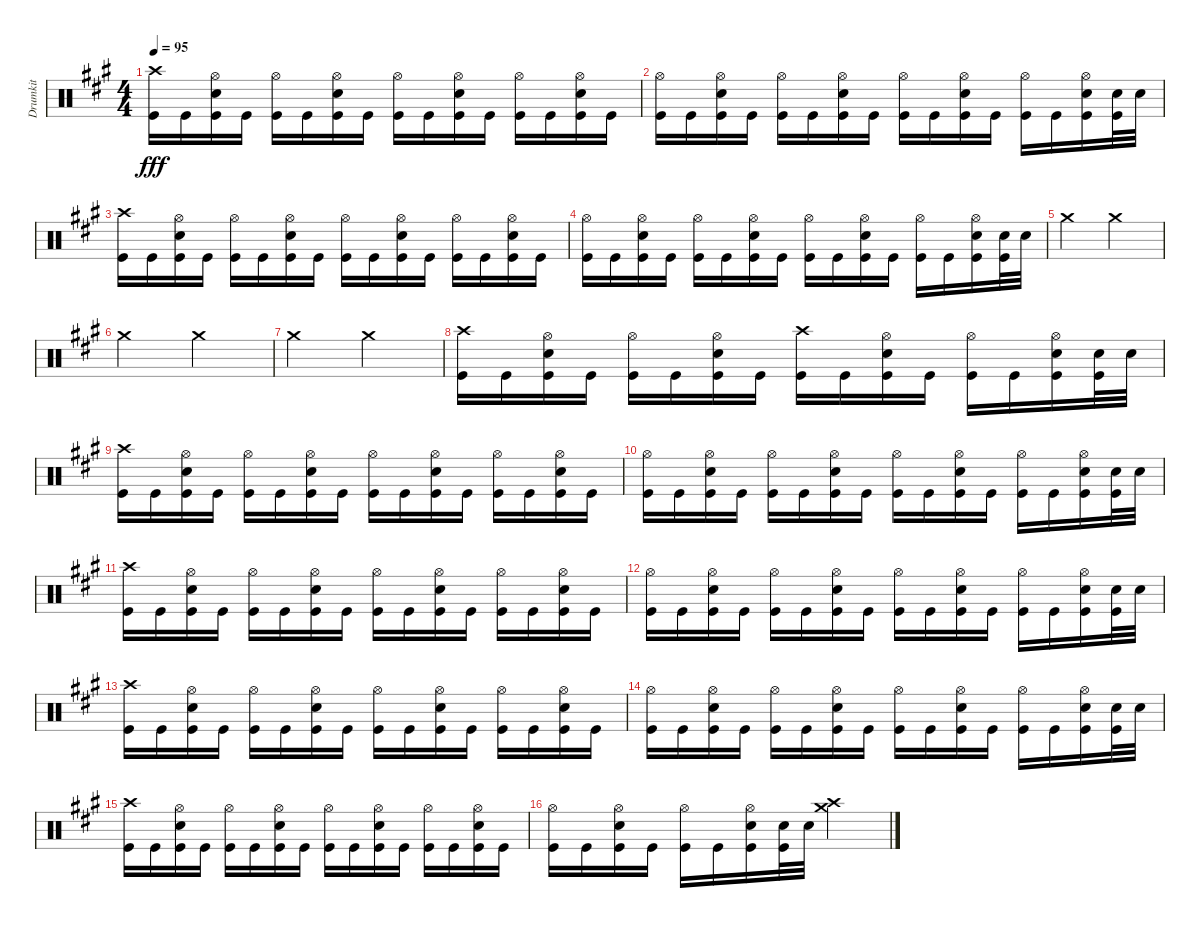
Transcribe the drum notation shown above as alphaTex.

\track ("Drumkit" "Drumkit") {instrument percussion}
\staff {score}
\articulation defaults
\ts (4 4)
\tempo 95
\clef neutral
\ks a
("Crash high (hit)" "Kick (hit)").16{dy fff} "Kick (hit)".16 ("Hi-Hat (open)" "Snare (hit) 2" "Kick (hit)").16 "Kick (hit)".16 ("Hi-Hat (open)" "Kick (hit)").16 "Kick (hit)".16 ("Hi-Hat (open)" "Snare (hit) 2" "Kick (hit)").16 "Kick (hit)".16 ("Hi-Hat (open)" "Kick (hit)").16 "Kick (hit)".16 ("Hi-Hat (open)" "Snare (hit) 2" "Kick (hit)").16 "Kick (hit)".16 ("Hi-Hat (open)" "Kick (hit)").16 "Kick (hit)".16 ("Hi-Hat (open)" "Snare (hit) 2" "Kick (hit)").16 "Kick (hit)".16 |
("Hi-Hat (open)" "Kick (hit)").16 "Kick (hit)".16 ("Hi-Hat (open)" "Snare (hit) 2" "Kick (hit)").16 "Kick (hit)".16 ("Hi-Hat (open)" "Kick (hit)").16 "Kick (hit)".16 ("Hi-Hat (open)" "Snare (hit) 2" "Kick (hit)").16 "Kick (hit)".16 ("Hi-Hat (open)" "Kick (hit)").16 "Kick (hit)".16 ("Hi-Hat (open)" "Snare (hit) 2" "Kick (hit)").16 "Kick (hit)".16 ("Hi-Hat (open)" "Kick (hit)").16 "Kick (hit)".16 ("Hi-Hat (open)" "Snare (hit) 2" "Kick (hit)").16 ("Snare (hit) 2" "Kick (hit)").32 "Snare (hit) 2".32 |
("Crash high (hit)" "Kick (hit)").16 "Kick (hit)".16 ("Hi-Hat (open)" "Snare (hit) 2" "Kick (hit)").16 "Kick (hit)".16 ("Hi-Hat (open)" "Kick (hit)").16 "Kick (hit)".16 ("Hi-Hat (open)" "Snare (hit) 2" "Kick (hit)").16 "Kick (hit)".16 ("Hi-Hat (open)" "Kick (hit)").16 "Kick (hit)".16 ("Hi-Hat (open)" "Snare (hit) 2" "Kick (hit)").16 "Kick (hit)".16 ("Hi-Hat (open)" "Kick (hit)").16 "Kick (hit)".16 ("Hi-Hat (open)" "Snare (hit) 2" "Kick (hit)").16 "Kick (hit)".16 |
("Hi-Hat (open)" "Kick (hit)").16 "Kick (hit)".16 ("Hi-Hat (open)" "Snare (hit) 2" "Kick (hit)").16 "Kick (hit)".16 ("Hi-Hat (open)" "Kick (hit)").16 "Kick (hit)".16 ("Hi-Hat (open)" "Snare (hit) 2" "Kick (hit)").16 "Kick (hit)".16 ("Hi-Hat (open)" "Kick (hit)").16 "Kick (hit)".16 ("Hi-Hat (open)" "Snare (hit) 2" "Kick (hit)").16 "Kick (hit)".16 ("Hi-Hat (open)" "Kick (hit)").16 "Kick (hit)".16 ("Hi-Hat (open)" "Snare (hit) 2" "Kick (hit)").16 ("Snare (hit) 2" "Kick (hit)").32 "Snare (hit) 2".32 |
"Crash medium (hit)".2 "Crash medium (hit)".2 |
"Crash medium (hit)".2 "Crash medium (hit)".2 |
"Crash medium (hit)".2 "Crash medium (hit)".2 |
("Crash high (hit)" "Kick (hit)").16 "Kick (hit)".16 ("Hi-Hat (open)" "Snare (hit) 2" "Kick (hit)").16 "Kick (hit)".16 ("Hi-Hat (open)" "Kick (hit)").16 "Kick (hit)".16 ("Hi-Hat (open)" "Snare (hit) 2" "Kick (hit)").16 "Kick (hit)".16 ("Crash high (hit)" "Kick (hit)").16 "Kick (hit)".16 ("Hi-Hat (open)" "Snare (hit) 2" "Kick (hit)").16 "Kick (hit)".16 ("Hi-Hat (open)" "Kick (hit)").16 "Kick (hit)".16 ("Hi-Hat (open)" "Snare (hit) 2" "Kick (hit)").16 ("Snare (hit) 2" "Kick (hit)").32 "Snare (hit) 2".32 |
("Crash high (hit)" "Kick (hit)").16 "Kick (hit)".16 ("Hi-Hat (open)" "Snare (hit) 2" "Kick (hit)").16 "Kick (hit)".16 ("Hi-Hat (open)" "Kick (hit)").16 "Kick (hit)".16 ("Hi-Hat (open)" "Snare (hit) 2" "Kick (hit)").16 "Kick (hit)".16 ("Hi-Hat (open)" "Kick (hit)").16 "Kick (hit)".16 ("Hi-Hat (open)" "Snare (hit) 2" "Kick (hit)").16 "Kick (hit)".16 ("Hi-Hat (open)" "Kick (hit)").16 "Kick (hit)".16 ("Hi-Hat (open)" "Snare (hit) 2" "Kick (hit)").16 "Kick (hit)".16 |
("Hi-Hat (open)" "Kick (hit)").16 "Kick (hit)".16 ("Hi-Hat (open)" "Snare (hit) 2" "Kick (hit)").16 "Kick (hit)".16 ("Hi-Hat (open)" "Kick (hit)").16 "Kick (hit)".16 ("Hi-Hat (open)" "Snare (hit) 2" "Kick (hit)").16 "Kick (hit)".16 ("Hi-Hat (open)" "Kick (hit)").16 "Kick (hit)".16 ("Hi-Hat (open)" "Snare (hit) 2" "Kick (hit)").16 "Kick (hit)".16 ("Hi-Hat (open)" "Kick (hit)").16 "Kick (hit)".16 ("Hi-Hat (open)" "Snare (hit) 2" "Kick (hit)").16 ("Snare (hit) 2" "Kick (hit)").32 "Snare (hit) 2".32 |
("Crash high (hit)" "Kick (hit)").16 "Kick (hit)".16 ("Hi-Hat (open)" "Snare (hit) 2" "Kick (hit)").16 "Kick (hit)".16 ("Hi-Hat (open)" "Kick (hit)").16 "Kick (hit)".16 ("Hi-Hat (open)" "Snare (hit) 2" "Kick (hit)").16 "Kick (hit)".16 ("Hi-Hat (open)" "Kick (hit)").16 "Kick (hit)".16 ("Hi-Hat (open)" "Snare (hit) 2" "Kick (hit)").16 "Kick (hit)".16 ("Hi-Hat (open)" "Kick (hit)").16 "Kick (hit)".16 ("Hi-Hat (open)" "Snare (hit) 2" "Kick (hit)").16 "Kick (hit)".16 |
("Hi-Hat (open)" "Kick (hit)").16 "Kick (hit)".16 ("Hi-Hat (open)" "Snare (hit) 2" "Kick (hit)").16 "Kick (hit)".16 ("Hi-Hat (open)" "Kick (hit)").16 "Kick (hit)".16 ("Hi-Hat (open)" "Snare (hit) 2" "Kick (hit)").16 "Kick (hit)".16 ("Hi-Hat (open)" "Kick (hit)").16 "Kick (hit)".16 ("Hi-Hat (open)" "Snare (hit) 2" "Kick (hit)").16 "Kick (hit)".16 ("Hi-Hat (open)" "Kick (hit)").16 "Kick (hit)".16 ("Hi-Hat (open)" "Snare (hit) 2" "Kick (hit)").16 ("Snare (hit) 2" "Kick (hit)").32 "Snare (hit) 2".32 |
("Crash high (hit)" "Kick (hit)").16 "Kick (hit)".16 ("Hi-Hat (open)" "Snare (hit) 2" "Kick (hit)").16 "Kick (hit)".16 ("Hi-Hat (open)" "Kick (hit)").16 "Kick (hit)".16 ("Hi-Hat (open)" "Snare (hit) 2" "Kick (hit)").16 "Kick (hit)".16 ("Hi-Hat (open)" "Kick (hit)").16 "Kick (hit)".16 ("Hi-Hat (open)" "Snare (hit) 2" "Kick (hit)").16 "Kick (hit)".16 ("Hi-Hat (open)" "Kick (hit)").16 "Kick (hit)".16 ("Hi-Hat (open)" "Snare (hit) 2" "Kick (hit)").16 "Kick (hit)".16 |
("Hi-Hat (open)" "Kick (hit)").16 "Kick (hit)".16 ("Hi-Hat (open)" "Snare (hit) 2" "Kick (hit)").16 "Kick (hit)".16 ("Hi-Hat (open)" "Kick (hit)").16 "Kick (hit)".16 ("Hi-Hat (open)" "Snare (hit) 2" "Kick (hit)").16 "Kick (hit)".16 ("Hi-Hat (open)" "Kick (hit)").16 "Kick (hit)".16 ("Hi-Hat (open)" "Snare (hit) 2" "Kick (hit)").16 "Kick (hit)".16 ("Hi-Hat (open)" "Kick (hit)").16 "Kick (hit)".16 ("Hi-Hat (open)" "Snare (hit) 2" "Kick (hit)").16 ("Snare (hit) 2" "Kick (hit)").32 "Snare (hit) 2".32 |
("Crash high (hit)" "Kick (hit)").16 "Kick (hit)".16 ("Hi-Hat (open)" "Snare (hit) 2" "Kick (hit)").16 "Kick (hit)".16 ("Hi-Hat (open)" "Kick (hit)").16 "Kick (hit)".16 ("Hi-Hat (open)" "Snare (hit) 2" "Kick (hit)").16 "Kick (hit)".16 ("Hi-Hat (open)" "Kick (hit)").16 "Kick (hit)".16 ("Hi-Hat (open)" "Snare (hit) 2" "Kick (hit)").16 "Kick (hit)".16 ("Hi-Hat (open)" "Kick (hit)").16 "Kick (hit)".16 ("Hi-Hat (open)" "Snare (hit) 2" "Kick (hit)").16 "Kick (hit)".16 |
("Hi-Hat (open)" "Kick (hit)").16 "Kick (hit)".16 ("Hi-Hat (open)" "Snare (hit) 2" "Kick (hit)").16 "Kick (hit)".16 ("Hi-Hat (open)" "Kick (hit)").16 "Kick (hit)".16 ("Hi-Hat (open)" "Snare (hit) 2" "Kick (hit)").16 ("Snare (hit) 2" "Kick (hit)").32 "Snare (hit) 2".32 ("Crash medium (hit)" "Crash high (hit)").2
